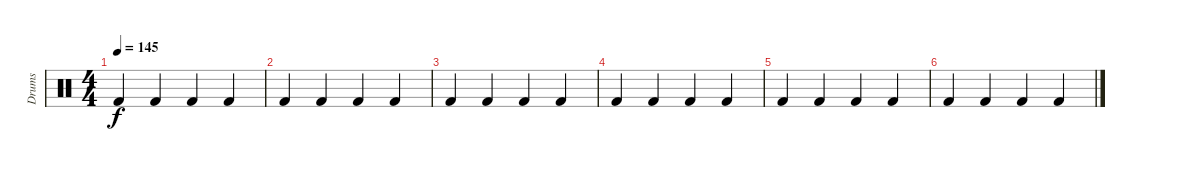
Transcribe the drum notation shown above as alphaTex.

\track ("Drums" "Drums") {instrument percussion}
\staff {score}
\articulation defaults
\ts (4 4)
\tempo 145
\clef neutral
\ks c "Kick (hit) 2".4{dy f} "Kick (hit) 2".4 "Kick (hit) 2".4 "Kick (hit) 2".4
|
"Kick (hit) 2".4 "Kick (hit) 2".4 "Kick (hit) 2".4 "Kick (hit) 2".4 |
"Kick (hit) 2".4 "Kick (hit) 2".4 "Kick (hit) 2".4 "Kick (hit) 2".4 |
"Kick (hit) 2".4 "Kick (hit) 2".4 "Kick (hit) 2".4 "Kick (hit) 2".4 |
"Kick (hit) 2".4 "Kick (hit) 2".4 "Kick (hit) 2".4 "Kick (hit) 2".4 |
"Kick (hit) 2".4 "Kick (hit) 2".4 "Kick (hit) 2".4 "Kick (hit) 2".4
